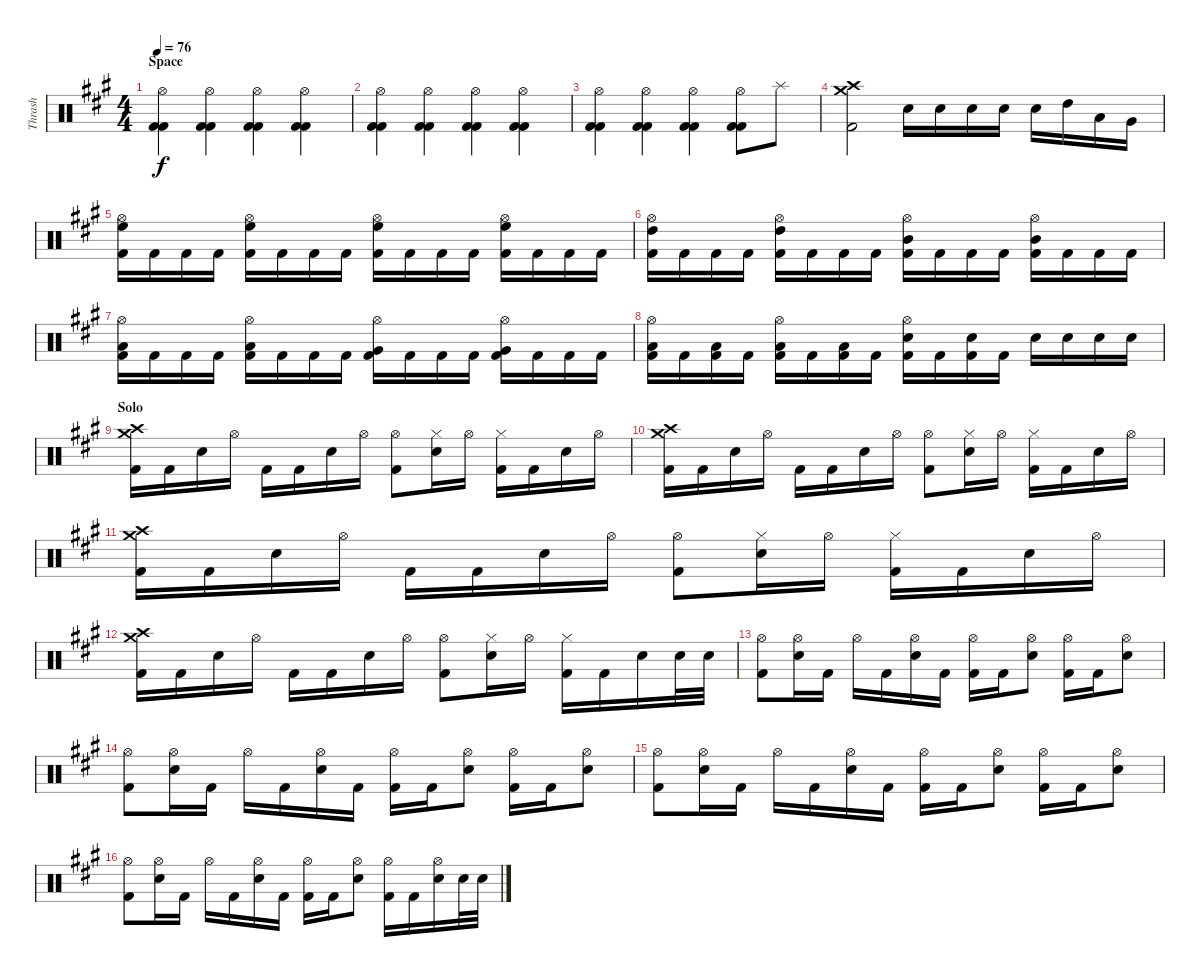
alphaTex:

\track ("Thrash" "Thrash") {instrument percussion}
\staff {score}
\articulation defaults
\ts (4 4)
\section ("" "Space")
\tempo 76
\clef neutral
\ks a
("Hi-Hat (open)" "Kick (hit) 2" "Kick (hit) 2").4{dy f} ("Hi-Hat (open)" "Kick (hit) 2" "Kick (hit) 2").4 ("Hi-Hat (open)" "Kick (hit) 2" "Kick (hit) 2").4 ("Hi-Hat (open)" "Kick (hit) 2" "Kick (hit) 2").4 |
("Hi-Hat (open)" "Kick (hit) 2" "Kick (hit) 2").4 ("Hi-Hat (open)" "Kick (hit) 2" "Kick (hit) 2").4 ("Hi-Hat (open)" "Kick (hit) 2" "Kick (hit) 2").4 ("Hi-Hat (open)" "Kick (hit) 2" "Kick (hit) 2").4 |
("Hi-Hat (open)" "Kick (hit) 2" "Kick (hit) 2").4 ("Hi-Hat (open)" "Kick (hit) 2" "Kick (hit) 2").4 ("Hi-Hat (open)" "Kick (hit) 2" "Kick (hit) 2").4 ("Hi-Hat (open)" "Kick (hit) 2" "Kick (hit) 2").8 "Splash (hit)".8 |
("Crash medium (hit)" "Crash high (hit)" "Kick (hit) 2").2 "Snare (hit) 2".16 "Snare (hit) 2".16 "Snare (hit) 2".16 "Snare (hit) 2".16 "Snare (hit) 2".16 "High Tom (hit)".16 "Low Tom (hit)".16 "Very Low Tom (hit)".16 |
("Hi-Hat (open)" "High Floor Tom (hit)" "Kick (hit) 2").16 "Kick (hit) 2".16 "Kick (hit) 2".16 "Kick (hit) 2".16 ("Hi-Hat (open)" "High Floor Tom (hit)" "Kick (hit) 2").16 "Kick (hit) 2".16 "Kick (hit) 2".16 "Kick (hit) 2".16 ("Hi-Hat (open)" "High Floor Tom (hit)" "Kick (hit) 2").16 "Kick (hit) 2".16 "Kick (hit) 2".16 "Kick (hit) 2".16 ("Hi-Hat (open)" "High Floor Tom (hit)" "Kick (hit) 2").16 "Kick (hit) 2".16 "Kick (hit) 2".16 "Kick (hit) 2".16 |
("Hi-Hat (open)" "High Tom (hit)" "Kick (hit) 2").16 "Kick (hit) 2".16 "Kick (hit) 2".16 "Kick (hit) 2".16 ("Hi-Hat (open)" "High Tom (hit)" "Kick (hit) 2").16 "Kick (hit) 2".16 "Kick (hit) 2".16 "Kick (hit) 2".16 ("Hi-Hat (open)" "Mid Tom (hit)" "Kick (hit) 2").16 "Kick (hit) 2".16 "Kick (hit) 2".16 "Kick (hit) 2".16 ("Hi-Hat (open)" "Mid Tom (hit)" "Kick (hit) 2").16 "Kick (hit) 2".16 "Kick (hit) 2".16 "Kick (hit) 2".16 |
("Hi-Hat (open)" "Low Tom (hit)" "Kick (hit) 2").16 "Kick (hit) 2".16 "Kick (hit) 2".16 "Kick (hit) 2".16 ("Hi-Hat (open)" "Low Tom (hit)" "Kick (hit) 2").16 "Kick (hit) 2".16 "Kick (hit) 2".16 "Kick (hit) 2".16 ("Hi-Hat (open)" "Very Low Tom (hit)" "Kick (hit) 2").16 "Kick (hit) 2".16 "Kick (hit) 2".16 "Kick (hit) 2".16 ("Hi-Hat (open)" "Very Low Tom (hit)" "Kick (hit) 2").16 "Kick (hit) 2".16 "Kick (hit) 2".16 "Kick (hit) 2".16 |
("Hi-Hat (open)" "Low Floor Tom (hit)" "Kick (hit) 2").16 "Kick (hit) 2".16 ("Low Floor Tom (hit)" "Kick (hit) 2").16 "Kick (hit) 2".16 ("Hi-Hat (open)" "Low Floor Tom (hit)" "Kick (hit) 2").16 "Kick (hit) 2".16 ("Low Floor Tom (hit)" "Kick (hit) 2").16 "Kick (hit) 2".16 ("Hi-Hat (open)" "Snare (hit) 2" "Kick (hit) 2").16 "Kick (hit) 2".16 ("Snare (hit) 2" "Kick (hit) 2").16 "Kick (hit) 2".16 "Snare (hit) 2".16 "Snare (hit) 2".16 "Snare (hit) 2".16 "Snare (hit) 2".16 |
\section ("" "Solo")
("Crash medium (hit)" "Crash high (hit)" "Kick (hit) 2").16 "Kick (hit) 2".16 "Snare (hit) 2".16 "Hi-Hat (open)".16 "Kick (hit) 2".16 "Kick (hit) 2".16 "Snare (hit) 2".16 "Hi-Hat (open)".16 ("Hi-Hat (open)" "Kick (hit) 2").8 ("Hi-Hat (closed)" "Snare (hit) 2").16 "Hi-Hat (open)".16 ("Hi-Hat (closed)" "Kick (hit) 2").16 "Kick (hit) 2".16 "Snare (hit) 2".16 "Hi-Hat (open)".16 |
("Crash medium (hit)" "Crash high (hit)" "Kick (hit) 2").16 "Kick (hit) 2".16 "Snare (hit) 2".16 "Hi-Hat (open)".16 "Kick (hit) 2".16 "Kick (hit) 2".16 "Snare (hit) 2".16 "Hi-Hat (open)".16 ("Hi-Hat (open)" "Kick (hit) 2").8 ("Hi-Hat (closed)" "Snare (hit) 2").16 "Hi-Hat (open)".16 ("Hi-Hat (closed)" "Kick (hit) 2").16 "Kick (hit) 2".16 "Snare (hit) 2".16 "Hi-Hat (open)".16 |
("Crash medium (hit)" "Crash high (hit)" "Kick (hit) 2").16 "Kick (hit) 2".16 "Snare (hit) 2".16 "Hi-Hat (open)".16 "Kick (hit) 2".16 "Kick (hit) 2".16 "Snare (hit) 2".16 "Hi-Hat (open)".16 ("Hi-Hat (open)" "Kick (hit) 2").8 ("Hi-Hat (closed)" "Snare (hit) 2").16 "Hi-Hat (open)".16 ("Hi-Hat (closed)" "Kick (hit) 2").16 "Kick (hit) 2".16 "Snare (hit) 2".16 "Hi-Hat (open)".16 |
("Crash medium (hit)" "Crash high (hit)" "Kick (hit) 2").16 "Kick (hit) 2".16 "Snare (hit) 2".16 "Hi-Hat (open)".16 "Kick (hit) 2".16 "Kick (hit) 2".16 "Snare (hit) 2".16 "Hi-Hat (open)".16 ("Hi-Hat (open)" "Kick (hit) 2").8 ("Hi-Hat (closed)" "Snare (hit) 2").16 "Hi-Hat (open)".16 ("Hi-Hat (closed)" "Kick (hit) 2").16 "Kick (hit) 2".16 "Snare (hit) 2".16 "Snare (hit) 2".32 "Snare (hit) 2".32 |
("Hi-Hat (open)" "Kick (hit) 2").8 ("Hi-Hat (open)" "Snare (hit) 2").16 "Kick (hit) 2".16 "Hi-Hat (open)".16 "Kick (hit) 2".16 ("Hi-Hat (open)" "Snare (hit) 2").16 "Kick (hit) 2".16 ("Hi-Hat (open)" "Kick (hit) 2").16 "Kick (hit) 2".16 ("Hi-Hat (open)" "Snare (hit) 2").8 ("Hi-Hat (open)" "Kick (hit) 2").16 "Kick (hit) 2".16 ("Hi-Hat (open)" "Snare (hit) 2").8 |
("Hi-Hat (open)" "Kick (hit) 2").8 ("Hi-Hat (open)" "Snare (hit) 2").16 "Kick (hit) 2".16 "Hi-Hat (open)".16 "Kick (hit) 2".16 ("Hi-Hat (open)" "Snare (hit) 2").16 "Kick (hit) 2".16 ("Hi-Hat (open)" "Kick (hit) 2").16 "Kick (hit) 2".16 ("Hi-Hat (open)" "Snare (hit) 2").8 ("Hi-Hat (open)" "Kick (hit) 2").16 "Kick (hit) 2".16 ("Hi-Hat (open)" "Snare (hit) 2").8 |
("Hi-Hat (open)" "Kick (hit) 2").8 ("Hi-Hat (open)" "Snare (hit) 2").16 "Kick (hit) 2".16 "Hi-Hat (open)".16 "Kick (hit) 2".16 ("Hi-Hat (open)" "Snare (hit) 2").16 "Kick (hit) 2".16 ("Hi-Hat (open)" "Kick (hit) 2").16 "Kick (hit) 2".16 ("Hi-Hat (open)" "Snare (hit) 2").8 ("Hi-Hat (open)" "Kick (hit) 2").16 "Kick (hit) 2".16 ("Hi-Hat (open)" "Snare (hit) 2").8 |
("Hi-Hat (open)" "Kick (hit) 2").8 ("Hi-Hat (open)" "Snare (hit) 2").16 "Kick (hit) 2".16 "Hi-Hat (open)".16 "Kick (hit) 2".16 ("Hi-Hat (open)" "Snare (hit) 2").16 "Kick (hit) 2".16 ("Hi-Hat (open)" "Kick (hit) 2").16 "Kick (hit) 2".16 ("Hi-Hat (open)" "Snare (hit) 2").8 ("Hi-Hat (open)" "Kick (hit) 2").16 "Kick (hit) 2".16 ("Hi-Hat (open)" "Snare (hit) 2").16 "Snare (hit) 2".32 "Snare (hit) 2".32
